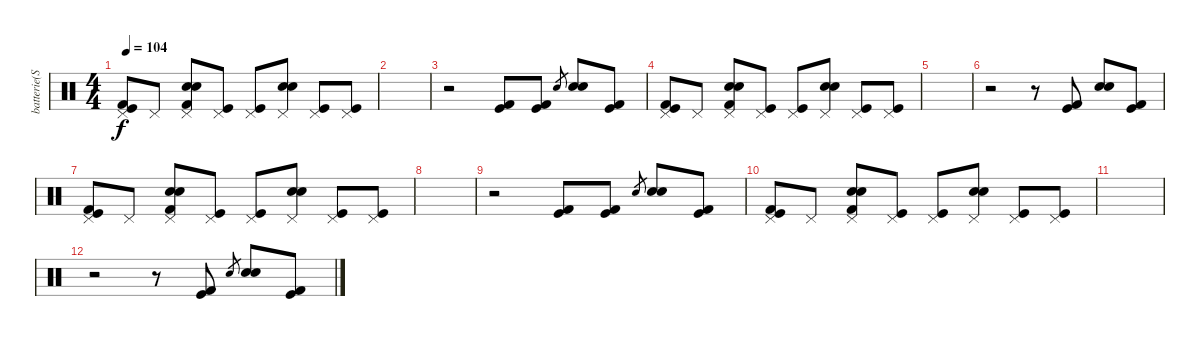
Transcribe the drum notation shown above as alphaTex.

\track ("batterie(Schemel)" "batterie(S") {instrument percussion}
\staff {score}
\articulation defaults
\ts (4 4)
\tempo 104
\clef neutral
\ks c
("Pedal Hi-Hat (hit)" "Kick (hit) 2" "Kick (hit)").8{dy f} "Pedal Hi-Hat (hit)".8 ("Pedal Hi-Hat (hit)" "Electric Snare (hit)" "Snare (hit) 2" "Kick (hit) 2").8 ("Pedal Hi-Hat (hit)" "Kick (hit)").8 ("Pedal Hi-Hat (hit)" "Kick (hit)").8 ("Pedal Hi-Hat (hit)" "Electric Snare (hit)" "Snare (hit) 2").8 ("Pedal Hi-Hat (hit)" "Kick (hit)").8 ("Pedal Hi-Hat (hit)" "Kick (hit)").8 |
|
r.2 ("Kick (hit) 2" "Kick (hit)").8 ("Kick (hit) 2" "Kick (hit)").8 "Electric Snare (hit)"{sl}.8{gr} ("Electric Snare (hit)" "Snare (hit) 2").8 ("Kick (hit)" "Kick (hit) 2").8 |
("Pedal Hi-Hat (hit)" "Kick (hit) 2" "Kick (hit)").8 "Pedal Hi-Hat (hit)".8 ("Pedal Hi-Hat (hit)" "Electric Snare (hit)" "Snare (hit) 2" "Kick (hit) 2").8 ("Pedal Hi-Hat (hit)" "Kick (hit)").8 ("Pedal Hi-Hat (hit)" "Kick (hit)").8 ("Pedal Hi-Hat (hit)" "Electric Snare (hit)" "Snare (hit) 2").8 ("Pedal Hi-Hat (hit)" "Kick (hit)").8 ("Pedal Hi-Hat (hit)" "Kick (hit)").8 |
|
r.2 r.8 ("Kick (hit) 2" "Kick (hit)").8 ("Electric Snare (hit)" "Snare (hit) 2").8 ("Kick (hit)" "Kick (hit) 2").8 |
("Pedal Hi-Hat (hit)" "Kick (hit) 2" "Kick (hit)").8 "Pedal Hi-Hat (hit)".8 ("Pedal Hi-Hat (hit)" "Electric Snare (hit)" "Snare (hit) 2" "Kick (hit) 2").8 ("Pedal Hi-Hat (hit)" "Kick (hit)").8 ("Pedal Hi-Hat (hit)" "Kick (hit)").8 ("Pedal Hi-Hat (hit)" "Electric Snare (hit)" "Snare (hit) 2").8 ("Pedal Hi-Hat (hit)" "Kick (hit)").8 ("Pedal Hi-Hat (hit)" "Kick (hit)").8 |
|
r.2 ("Kick (hit) 2" "Kick (hit)").8 ("Kick (hit) 2" "Kick (hit)").8 "Electric Snare (hit)"{sl}.8{gr} ("Electric Snare (hit)" "Snare (hit) 2").8 ("Kick (hit)" "Kick (hit) 2").8 |
("Pedal Hi-Hat (hit)" "Kick (hit) 2" "Kick (hit)").8 "Pedal Hi-Hat (hit)".8 ("Pedal Hi-Hat (hit)" "Electric Snare (hit)" "Snare (hit) 2" "Kick (hit) 2").8 ("Pedal Hi-Hat (hit)" "Kick (hit)").8 ("Pedal Hi-Hat (hit)" "Kick (hit)").8 ("Pedal Hi-Hat (hit)" "Electric Snare (hit)" "Snare (hit) 2").8 ("Pedal Hi-Hat (hit)" "Kick (hit)").8 ("Pedal Hi-Hat (hit)" "Kick (hit)").8 |
|
r.2 r.8 ("Kick (hit) 2" "Kick (hit)").8 "Electric Snare (hit)"{sl}.8{gr} ("Electric Snare (hit)" "Snare (hit) 2").8 ("Kick (hit)" "Kick (hit) 2").8
